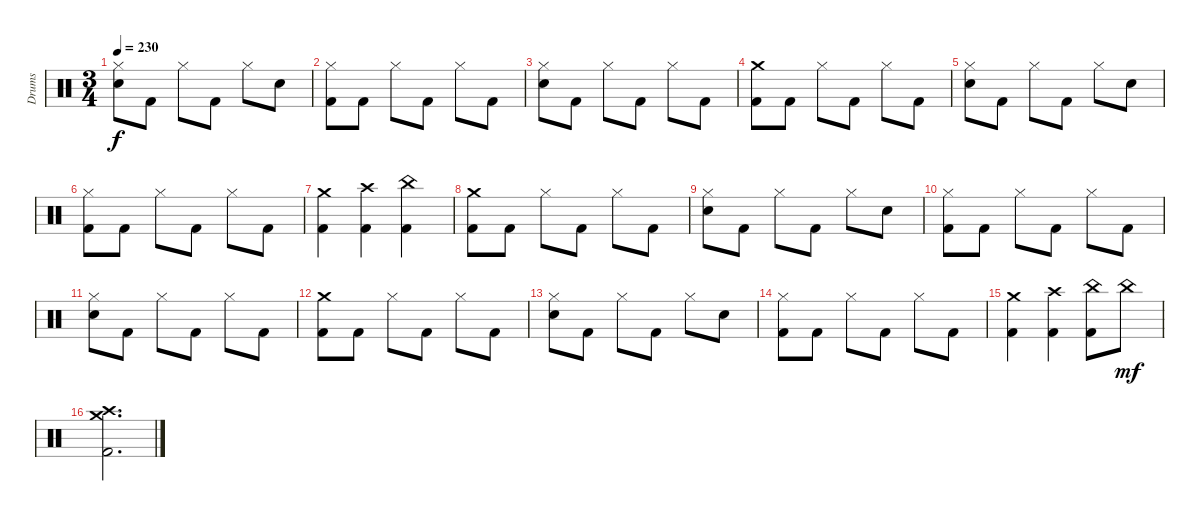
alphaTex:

\track ("Drums" "Drums") {instrument percussion}
\staff {score}
\articulation defaults
\ts (3 4)
\tempo 230
\clef neutral
\ks c
("Snare (hit) 2" "Hi-Hat (closed)").8{dy f} "Kick (hit) 2".8 "Hi-Hat (closed)".8 "Kick (hit) 2".8 "Hi-Hat (closed)".8 "Snare (hit) 2".8 |
("Kick (hit) 2" "Hi-Hat (closed)").8 "Kick (hit) 2".8 "Hi-Hat (closed)".8 "Kick (hit) 2".8 "Hi-Hat (closed)".8 "Kick (hit) 2".8 |
("Snare (hit) 2" "Hi-Hat (closed)").8 "Kick (hit) 2".8 "Hi-Hat (closed)".8 "Kick (hit) 2".8 "Hi-Hat (closed)".8 "Kick (hit) 2".8 |
("Kick (hit) 2" "Crash medium (hit)").8 "Kick (hit) 2".8 "Hi-Hat (closed)".8 "Kick (hit) 2".8 "Hi-Hat (closed)".8 "Kick (hit) 2".8 |
("Snare (hit) 2" "Hi-Hat (closed)").8 "Kick (hit) 2".8 "Hi-Hat (closed)".8 "Kick (hit) 2".8 "Hi-Hat (closed)".8 "Snare (hit) 2".8 |
("Kick (hit) 2" "Hi-Hat (closed)").8 "Kick (hit) 2".8 "Hi-Hat (closed)".8 "Kick (hit) 2".8 "Hi-Hat (closed)".8 "Kick (hit) 2".8 |
("Kick (hit) 2" "Crash medium (hit)").4 ("Kick (hit) 2" "Crash high (hit)").4 ("Kick (hit) 2" "China (hit)").4 |
("Kick (hit) 2" "Crash medium (hit)").8 "Kick (hit) 2".8 "Hi-Hat (closed)".8 "Kick (hit) 2".8 "Hi-Hat (closed)".8 "Kick (hit) 2".8 |
("Snare (hit) 2" "Hi-Hat (closed)").8 "Kick (hit) 2".8 "Hi-Hat (closed)".8 "Kick (hit) 2".8 "Hi-Hat (closed)".8 "Snare (hit) 2".8 |
("Kick (hit) 2" "Hi-Hat (closed)").8 "Kick (hit) 2".8 "Hi-Hat (closed)".8 "Kick (hit) 2".8 "Hi-Hat (closed)".8 "Kick (hit) 2".8 |
("Snare (hit) 2" "Hi-Hat (closed)").8 "Kick (hit) 2".8 "Hi-Hat (closed)".8 "Kick (hit) 2".8 "Hi-Hat (closed)".8 "Kick (hit) 2".8 |
("Kick (hit) 2" "Crash medium (hit)").8 "Kick (hit) 2".8 "Hi-Hat (closed)".8 "Kick (hit) 2".8 "Hi-Hat (closed)".8 "Kick (hit) 2".8 |
("Snare (hit) 2" "Hi-Hat (closed)").8 "Kick (hit) 2".8 "Hi-Hat (closed)".8 "Kick (hit) 2".8 "Hi-Hat (closed)".8 "Snare (hit) 2".8 |
("Kick (hit) 2" "Hi-Hat (closed)").8 "Kick (hit) 2".8 "Hi-Hat (closed)".8 "Kick (hit) 2".8 "Hi-Hat (closed)".8 "Kick (hit) 2".8 |
("Kick (hit) 2" "Crash medium (hit)").4 ("Kick (hit) 2" "Crash high (hit)").4 ("Kick (hit) 2" "China (hit)").8 "China (hit)".8{dy mf} |
("Kick (hit) 2" "Crash high (hit)" "Crash medium (hit)").2{d}
